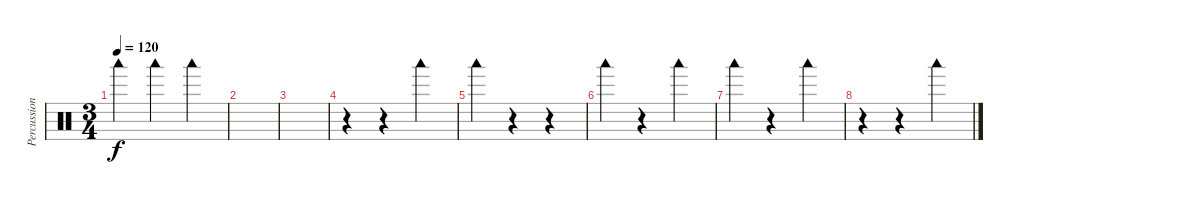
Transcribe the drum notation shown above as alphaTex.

\track ("Percussion" "Percussion") {instrument percussion}
\staff {score}
\articulation defaults
\ts (3 4)
\tempo 120
\clef neutral
\ks c "Woodblock low (hit)".4{dy f} "Woodblock low (hit)".4 "Woodblock low (hit)".4
|
|
|
r.4 r.4 "Woodblock low (hit)".4 |
"Woodblock low (hit)".4 r.4 r.4 |
"Woodblock low (hit)".4 r.4 "Woodblock low (hit)".4 |
"Woodblock low (hit)".4 r.4 "Woodblock low (hit)".4 |
r.4 r.4 "Woodblock low (hit)".4
